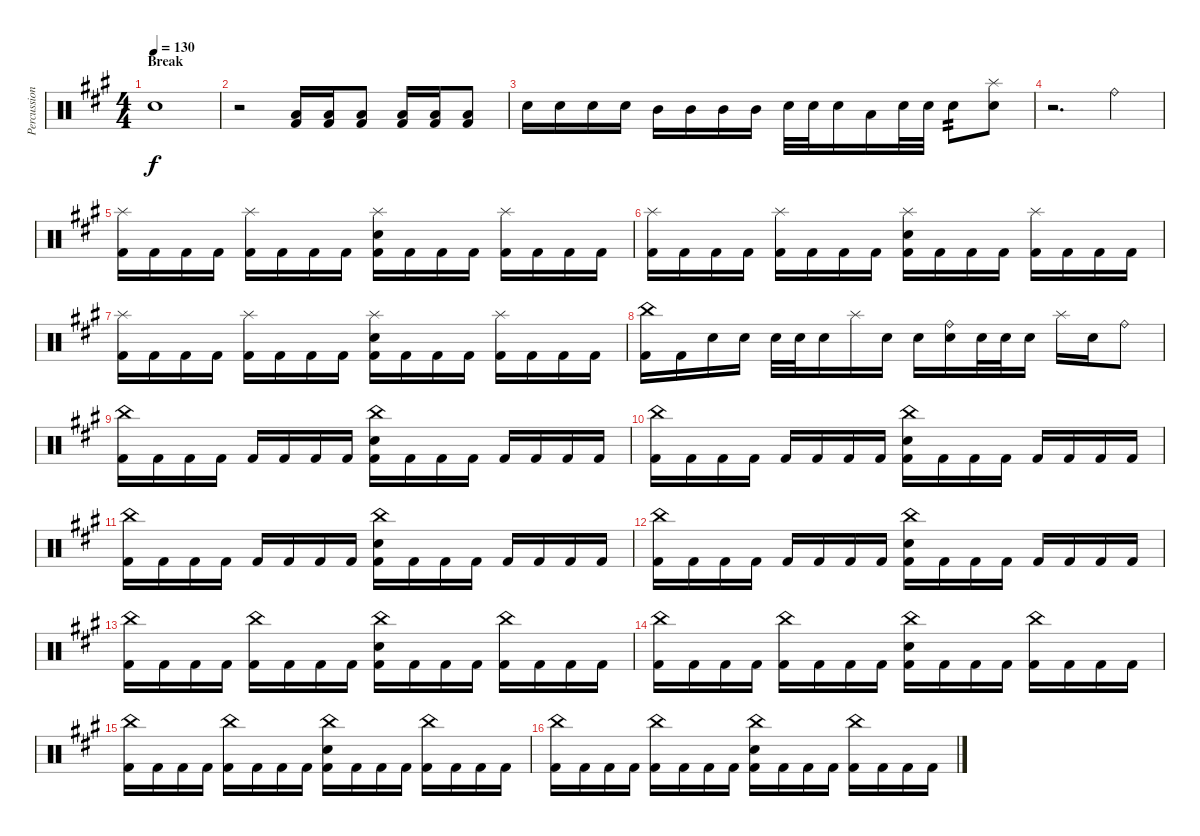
\track ("Percussion" "Percussion") {instrument percussion bank 127}
\staff {score}
\articulation defaults
\ts (4 4)
\section ("" "Break")
\tempo 130
\clef neutral
\ks a "Electric Snare (hit)".1{dy f}
|
r.2 ("Low Floor Tom (hit)" "Kick (hit) 2").16 ("Low Floor Tom (hit)" "Kick (hit) 2").16 ("Low Floor Tom (hit)" "Kick (hit) 2").8 ("Low Floor Tom (hit)" "Kick (hit) 2").16 ("Low Floor Tom (hit)" "Kick (hit) 2").16 ("Low Floor Tom (hit)" "Kick (hit) 2").8 |
"Electric Snare (hit)".16 "Electric Snare (hit)".16 "Electric Snare (hit)".16 "Electric Snare (hit)".16 "Mid Tom (hit)".16 "Mid Tom (hit)".16 "Mid Tom (hit)".16 "Mid Tom (hit)".16 "Electric Snare (hit)".32 "Electric Snare (hit)".32 "Electric Snare (hit)".16 "Low Tom (hit)".16 "Electric Snare (hit)".32 "Electric Snare (hit)".32 "Electric Snare (hit)".8{tp 2} ("Splash (hit)" "Electric Snare (hit)").8 |
r.2{d} "Ride (bell)".4 |
("Splash (hit)" "Kick (hit) 2").16 "Kick (hit) 2".16 "Kick (hit) 2".16 "Kick (hit) 2".16 ("Splash (hit)" "Kick (hit) 2").16 "Kick (hit) 2".16 "Kick (hit) 2".16 "Kick (hit) 2".16 ("Splash (hit)" "Electric Snare (hit)" "Kick (hit) 2").16 "Kick (hit) 2".16 "Kick (hit) 2".16 "Kick (hit) 2".16 ("Splash (hit)" "Kick (hit) 2").16 "Kick (hit) 2".16 "Kick (hit) 2".16 "Kick (hit) 2".16 |
("Splash (hit)" "Kick (hit) 2").16 "Kick (hit) 2".16 "Kick (hit) 2".16 "Kick (hit) 2".16 ("Splash (hit)" "Kick (hit) 2").16 "Kick (hit) 2".16 "Kick (hit) 2".16 "Kick (hit) 2".16 ("Splash (hit)" "Electric Snare (hit)" "Kick (hit) 2").16 "Kick (hit) 2".16 "Kick (hit) 2".16 "Kick (hit) 2".16 ("Splash (hit)" "Kick (hit) 2").16 "Kick (hit) 2".16 "Kick (hit) 2".16 "Kick (hit) 2".16 |
("Splash (hit)" "Kick (hit) 2").16 "Kick (hit) 2".16 "Kick (hit) 2".16 "Kick (hit) 2".16 ("Splash (hit)" "Kick (hit) 2").16 "Kick (hit) 2".16 "Kick (hit) 2".16 "Kick (hit) 2".16 ("Splash (hit)" "Electric Snare (hit)" "Kick (hit) 2").16 "Kick (hit) 2".16 "Kick (hit) 2".16 "Kick (hit) 2".16 ("Splash (hit)" "Kick (hit) 2").16 "Kick (hit) 2".16 "Kick (hit) 2".16 "Kick (hit) 2".16 |
("China (hit)" "Kick (hit) 2").16 "Kick (hit) 2".16 "Electric Snare (hit)".16 "Electric Snare (hit)".16 "Electric Snare (hit)".32 "Electric Snare (hit)".32 "Electric Snare (hit)".16 "Splash (hit)".16 "Electric Snare (hit)".16 "Electric Snare (hit)".16 ("Ride (bell)" "Electric Snare (hit)").16 "Electric Snare (hit)".32 "Electric Snare (hit)".32 "Electric Snare (hit)".16 "Splash (hit)".16 "Electric Snare (hit)".16 "Ride (bell)".8 |
("China (hit)" "Kick (hit) 2").16 "Kick (hit) 2".16 "Kick (hit) 2".16 "Kick (hit) 2".16 "Kick (hit) 2".16 "Kick (hit) 2".16 "Kick (hit) 2".16 "Kick (hit) 2".16 ("China (hit)" "Electric Snare (hit)" "Kick (hit) 2").16 "Kick (hit) 2".16 "Kick (hit) 2".16 "Kick (hit) 2".16 "Kick (hit) 2".16 "Kick (hit) 2".16 "Kick (hit) 2".16 "Kick (hit) 2".16 |
("China (hit)" "Kick (hit) 2").16 "Kick (hit) 2".16 "Kick (hit) 2".16 "Kick (hit) 2".16 "Kick (hit) 2".16 "Kick (hit) 2".16 "Kick (hit) 2".16 "Kick (hit) 2".16 ("China (hit)" "Electric Snare (hit)" "Kick (hit) 2").16 "Kick (hit) 2".16 "Kick (hit) 2".16 "Kick (hit) 2".16 "Kick (hit) 2".16 "Kick (hit) 2".16 "Kick (hit) 2".16 "Kick (hit) 2".16 |
("China (hit)" "Kick (hit) 2").16 "Kick (hit) 2".16 "Kick (hit) 2".16 "Kick (hit) 2".16 "Kick (hit) 2".16 "Kick (hit) 2".16 "Kick (hit) 2".16 "Kick (hit) 2".16 ("China (hit)" "Electric Snare (hit)" "Kick (hit) 2").16 "Kick (hit) 2".16 "Kick (hit) 2".16 "Kick (hit) 2".16 "Kick (hit) 2".16 "Kick (hit) 2".16 "Kick (hit) 2".16 "Kick (hit) 2".16 |
("China (hit)" "Kick (hit) 2").16 "Kick (hit) 2".16 "Kick (hit) 2".16 "Kick (hit) 2".16 "Kick (hit) 2".16 "Kick (hit) 2".16 "Kick (hit) 2".16 "Kick (hit) 2".16 ("China (hit)" "Electric Snare (hit)" "Kick (hit) 2").16 "Kick (hit) 2".16 "Kick (hit) 2".16 "Kick (hit) 2".16 "Kick (hit) 2".16 "Kick (hit) 2".16 "Kick (hit) 2".16 "Kick (hit) 2".16 |
("China (hit)" "Kick (hit) 2").16 "Kick (hit) 2".16 "Kick (hit) 2".16 "Kick (hit) 2".16 ("China (hit)" "Kick (hit) 2").16 "Kick (hit) 2".16 "Kick (hit) 2".16 "Kick (hit) 2".16 ("China (hit)" "Electric Snare (hit)" "Kick (hit) 2").16 "Kick (hit) 2".16 "Kick (hit) 2".16 "Kick (hit) 2".16 ("China (hit)" "Kick (hit) 2").16 "Kick (hit) 2".16 "Kick (hit) 2".16 "Kick (hit) 2".16 |
("China (hit)" "Kick (hit) 2").16 "Kick (hit) 2".16 "Kick (hit) 2".16 "Kick (hit) 2".16 ("China (hit)" "Kick (hit) 2").16 "Kick (hit) 2".16 "Kick (hit) 2".16 "Kick (hit) 2".16 ("China (hit)" "Electric Snare (hit)" "Kick (hit) 2").16 "Kick (hit) 2".16 "Kick (hit) 2".16 "Kick (hit) 2".16 ("China (hit)" "Kick (hit) 2").16 "Kick (hit) 2".16 "Kick (hit) 2".16 "Kick (hit) 2".16 |
("China (hit)" "Kick (hit) 2").16 "Kick (hit) 2".16 "Kick (hit) 2".16 "Kick (hit) 2".16 ("China (hit)" "Kick (hit) 2").16 "Kick (hit) 2".16 "Kick (hit) 2".16 "Kick (hit) 2".16 ("China (hit)" "Electric Snare (hit)" "Kick (hit) 2").16 "Kick (hit) 2".16 "Kick (hit) 2".16 "Kick (hit) 2".16 ("China (hit)" "Kick (hit) 2").16 "Kick (hit) 2".16 "Kick (hit) 2".16 "Kick (hit) 2".16 |
("China (hit)" "Kick (hit) 2").16 "Kick (hit) 2".16 "Kick (hit) 2".16 "Kick (hit) 2".16 ("China (hit)" "Kick (hit) 2").16 "Kick (hit) 2".16 "Kick (hit) 2".16 "Kick (hit) 2".16 ("China (hit)" "Electric Snare (hit)" "Kick (hit) 2").16 "Kick (hit) 2".16 "Kick (hit) 2".16 "Kick (hit) 2".16 ("China (hit)" "Kick (hit) 2").16 "Kick (hit) 2".16 "Kick (hit) 2".16 "Kick (hit) 2".16
